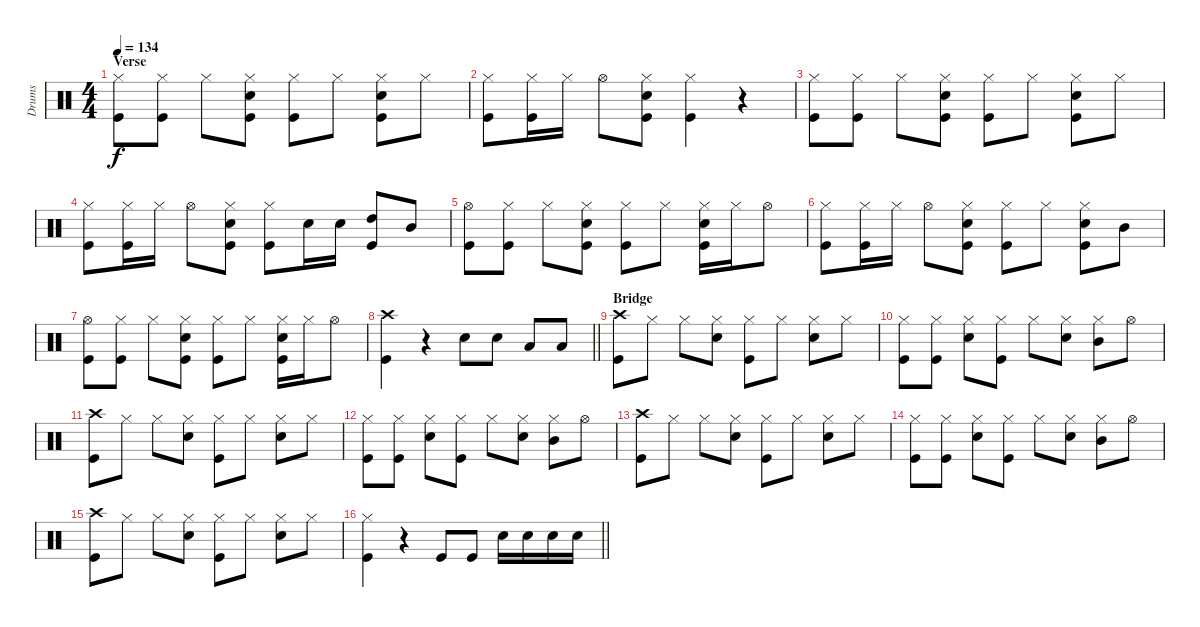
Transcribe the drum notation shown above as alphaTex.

\track ("Drums" "Drums") {instrument percussion}
\staff {score}
\articulation defaults
\ts (4 4)
\section ("" "Verse")
\tempo 134
\clef neutral
\ks c
("Hi-Hat (closed)" "Kick (hit)").8{dy f} ("Hi-Hat (closed)" "Kick (hit)").8 "Hi-Hat (closed)".8 ("Hi-Hat (closed)" "Snare (hit) 2" "Kick (hit)").8 ("Hi-Hat (closed)" "Kick (hit)").8 "Hi-Hat (closed)".8 ("Hi-Hat (closed)" "Snare (hit) 2" "Kick (hit)").8 "Hi-Hat (closed)".8 |
("Hi-Hat (closed)" "Kick (hit)").8 ("Hi-Hat (closed)" "Kick (hit)").16 "Hi-Hat (closed)".16 "Hi-Hat (open)".8 ("Hi-Hat (closed)" "Snare (hit) 2" "Kick (hit)").8 ("Hi-Hat (closed)" "Kick (hit)").4 r.4 |
("Hi-Hat (closed)" "Kick (hit)").8 ("Hi-Hat (closed)" "Kick (hit)").8 "Hi-Hat (closed)".8 ("Hi-Hat (closed)" "Snare (hit) 2" "Kick (hit)").8 ("Hi-Hat (closed)" "Kick (hit)").8 "Hi-Hat (closed)".8 ("Hi-Hat (closed)" "Snare (hit) 2" "Kick (hit)").8 "Hi-Hat (closed)".8 |
("Hi-Hat (closed)" "Kick (hit)").8 ("Hi-Hat (closed)" "Kick (hit)").16 "Hi-Hat (closed)".16 "Hi-Hat (open)".8 ("Hi-Hat (closed)" "Snare (hit) 2" "Kick (hit)").8 ("Hi-Hat (closed)" "Kick (hit)").8 "Snare (hit) 2".16 "Snare (hit) 2".16 ("High Tom (hit)" "Kick (hit)").8 "Mid Tom (hit)".8 |
("Hi-Hat (open)" "Kick (hit)").8 ("Hi-Hat (closed)" "Kick (hit)").8 "Hi-Hat (closed)".8 ("Hi-Hat (closed)" "Snare (hit) 2" "Kick (hit)").8 ("Hi-Hat (closed)" "Kick (hit)").8 "Hi-Hat (closed)".8 ("Hi-Hat (closed)" "Snare (hit) 2" "Kick (hit)").16 "Hi-Hat (closed)".16 "Hi-Hat (open)".8 |
("Hi-Hat (closed)" "Kick (hit)").8 ("Hi-Hat (closed)" "Kick (hit)").16 "Hi-Hat (closed)".16 "Hi-Hat (open)".8 ("Hi-Hat (closed)" "Snare (hit) 2" "Kick (hit)").8 ("Hi-Hat (closed)" "Kick (hit)").8 "Hi-Hat (closed)".8 ("Hi-Hat (closed)" "Snare (hit) 2" "Kick (hit)").8 "Mid Tom (hit)".8 |
("Hi-Hat (open)" "Kick (hit)").8 ("Hi-Hat (closed)" "Kick (hit)").8 "Hi-Hat (closed)".8 ("Hi-Hat (closed)" "Snare (hit) 2" "Kick (hit)").8 ("Hi-Hat (closed)" "Kick (hit)").8 "Hi-Hat (closed)".8 ("Hi-Hat (closed)" "Snare (hit) 2" "Kick (hit)").16 "Hi-Hat (closed)".16 "Hi-Hat (open)".8 |
\barLineRight lightlight
("Crash high (hit)" "Kick (hit)").4 r.4 "Snare (hit) 2".8 "Snare (hit) 2".8 "Low Tom (hit)".8 "Low Tom (hit)".8 |
\section ("" "Bridge")
("Crash high (hit)" "Kick (hit)").8 "Hi-Hat (closed)".8 "Hi-Hat (closed)".8 ("Hi-Hat (closed)" "Snare (hit) 2").8 ("Hi-Hat (closed)" "Kick (hit)").8 "Hi-Hat (closed)".8 ("Hi-Hat (closed)" "Snare (hit) 2").8 "Hi-Hat (closed)".8 |
("Hi-Hat (closed)" "Kick (hit)").8 ("Hi-Hat (closed)" "Kick (hit)").8 ("Hi-Hat (closed)" "Snare (hit) 2").8 ("Hi-Hat (closed)" "Kick (hit)").8 "Hi-Hat (closed)".8 ("Hi-Hat (closed)" "Snare (hit) 2").8 ("Hi-Hat (closed)" "Mid Tom (hit)").8 "Hi-Hat (open)".8 |
("Crash high (hit)" "Kick (hit)").8 "Hi-Hat (closed)".8 "Hi-Hat (closed)".8 ("Hi-Hat (closed)" "Snare (hit) 2").8 ("Hi-Hat (closed)" "Kick (hit)").8 "Hi-Hat (closed)".8 ("Hi-Hat (closed)" "Snare (hit) 2").8 "Hi-Hat (closed)".8 |
("Hi-Hat (closed)" "Kick (hit)").8 ("Hi-Hat (closed)" "Kick (hit)").8 ("Hi-Hat (closed)" "Snare (hit) 2").8 ("Hi-Hat (closed)" "Kick (hit)").8 "Hi-Hat (closed)".8 ("Hi-Hat (closed)" "Snare (hit) 2").8 ("Hi-Hat (closed)" "Mid Tom (hit)").8 "Hi-Hat (open)".8 |
("Crash high (hit)" "Kick (hit)").8 "Hi-Hat (closed)".8 "Hi-Hat (closed)".8 ("Hi-Hat (closed)" "Snare (hit) 2").8 ("Hi-Hat (closed)" "Kick (hit)").8 "Hi-Hat (closed)".8 ("Hi-Hat (closed)" "Snare (hit) 2").8 "Hi-Hat (closed)".8 |
("Hi-Hat (closed)" "Kick (hit)").8 ("Hi-Hat (closed)" "Kick (hit)").8 ("Hi-Hat (closed)" "Snare (hit) 2").8 ("Hi-Hat (closed)" "Kick (hit)").8 "Hi-Hat (closed)".8 ("Hi-Hat (closed)" "Snare (hit) 2").8 ("Hi-Hat (closed)" "Mid Tom (hit)").8 "Hi-Hat (open)".8 |
("Crash high (hit)" "Kick (hit)").8 "Hi-Hat (closed)".8 "Hi-Hat (closed)".8 ("Hi-Hat (closed)" "Snare (hit) 2").8 ("Hi-Hat (closed)" "Kick (hit)").8 "Hi-Hat (closed)".8 ("Hi-Hat (closed)" "Snare (hit) 2").8 "Hi-Hat (closed)".8 |
\barLineRight lightlight
("Hi-Hat (closed)" "Kick (hit)").4 r.4 "Kick (hit)".8 "Kick (hit)".8 "Snare (hit) 2".16 "Snare (hit) 2".16 "Snare (hit) 2".16 "Snare (hit) 2".16
